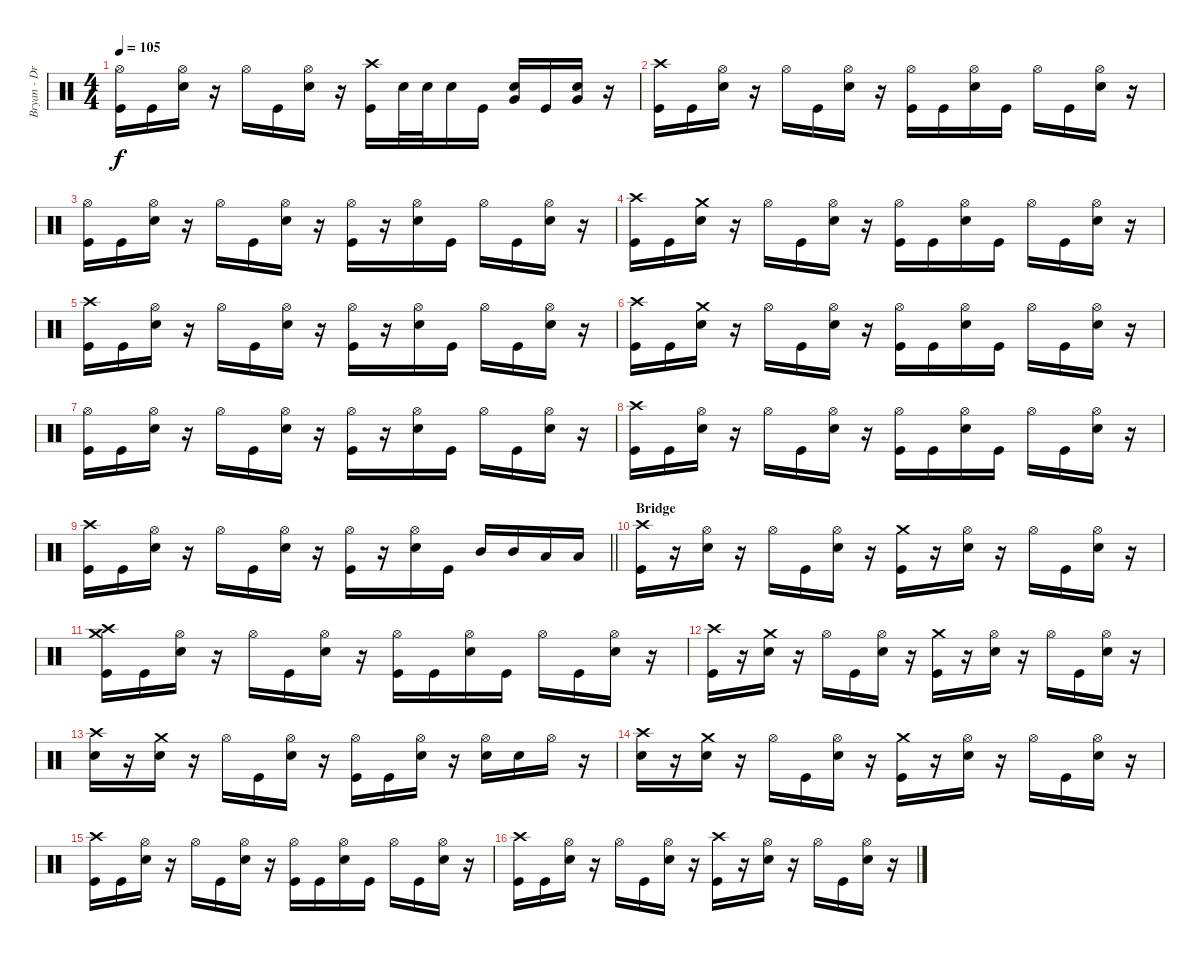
\track ("Bryan - Drums" "Bryan - Dr") {instrument percussion}
\staff {score}
\articulation defaults
\ts (4 4)
\tempo 105
\clef neutral
\ks c
("Hi-Hat (open)" "Kick (hit)").16{dy f} "Kick (hit)".16 ("Hi-Hat (open)" "Snare (hit) 2").16 r.16 "Hi-Hat (open)".16 "Kick (hit)".16 ("Hi-Hat (open)" "Snare (hit) 2").16 r.16 ("Crash high (hit)" "Kick (hit)").16 "Snare (hit) 2".32 "Snare (hit) 2".32 "Snare (hit) 2".16 "Kick (hit)".16 ("Snare (hit) 2" "Very Low Tom (hit)").16 "Kick (hit)".16 ("Snare (hit) 2" "Very Low Tom (hit)").16 r.16 |
("Crash high (hit)" "Kick (hit)").16 "Kick (hit)".16 ("Hi-Hat (open)" "Snare (hit) 2").16 r.16 "Hi-Hat (open)".16 "Kick (hit)".16 ("Hi-Hat (open)" "Snare (hit) 2").16 r.16 ("Hi-Hat (open)" "Kick (hit)").16 "Kick (hit)".16 ("Hi-Hat (open)" "Snare (hit) 2").16 "Kick (hit)".16 "Hi-Hat (open)".16 "Kick (hit)".16 ("Hi-Hat (open)" "Snare (hit) 2").16 r.16 |
("Hi-Hat (open)" "Kick (hit)").16 "Kick (hit)".16 ("Hi-Hat (open)" "Snare (hit) 2").16 r.16 "Hi-Hat (open)".16 "Kick (hit)".16 ("Hi-Hat (open)" "Snare (hit) 2").16 r.16 ("Hi-Hat (open)" "Kick (hit)").16 r.16 ("Hi-Hat (open)" "Snare (hit) 2").16 "Kick (hit)".16 "Hi-Hat (open)".16 "Kick (hit)".16 ("Hi-Hat (open)" "Snare (hit) 2").16 r.16 |
("Crash high (hit)" "Kick (hit)").16 "Kick (hit)".16 ("Crash medium (hit)" "Snare (hit) 2").16 r.16 "Hi-Hat (open)".16 "Kick (hit)".16 ("Hi-Hat (open)" "Snare (hit) 2").16 r.16 ("Hi-Hat (open)" "Kick (hit)").16 "Kick (hit)".16 ("Hi-Hat (open)" "Snare (hit) 2").16 "Kick (hit)".16 "Hi-Hat (open)".16 "Kick (hit)".16 ("Hi-Hat (open)" "Snare (hit) 2").16 r.16 |
("Crash high (hit)" "Kick (hit)").16 "Kick (hit)".16 ("Hi-Hat (open)" "Snare (hit) 2").16 r.16 "Hi-Hat (open)".16 "Kick (hit)".16 ("Hi-Hat (open)" "Snare (hit) 2").16 r.16 ("Hi-Hat (open)" "Kick (hit)").16 r.16 ("Hi-Hat (open)" "Snare (hit) 2").16 "Kick (hit)".16 "Hi-Hat (open)".16 "Kick (hit)".16 ("Hi-Hat (open)" "Snare (hit) 2").16 r.16 |
("Crash high (hit)" "Kick (hit)").16 "Kick (hit)".16 ("Crash medium (hit)" "Snare (hit) 2").16 r.16 "Hi-Hat (open)".16 "Kick (hit)".16 ("Hi-Hat (open)" "Snare (hit) 2").16 r.16 ("Hi-Hat (open)" "Kick (hit)").16 "Kick (hit)".16 ("Hi-Hat (open)" "Snare (hit) 2").16 "Kick (hit)".16 "Hi-Hat (open)".16 "Kick (hit)".16 ("Hi-Hat (open)" "Snare (hit) 2").16 r.16 |
("Hi-Hat (open)" "Kick (hit)").16 "Kick (hit)".16 ("Hi-Hat (open)" "Snare (hit) 2").16 r.16 "Hi-Hat (open)".16 "Kick (hit)".16 ("Hi-Hat (open)" "Snare (hit) 2").16 r.16 ("Hi-Hat (open)" "Kick (hit)").16 r.16 ("Hi-Hat (open)" "Snare (hit) 2").16 "Kick (hit)".16 "Hi-Hat (open)".16 "Kick (hit)".16 ("Hi-Hat (open)" "Snare (hit) 2").16 r.16 |
("Crash high (hit)" "Kick (hit)").16 "Kick (hit)".16 ("Hi-Hat (open)" "Snare (hit) 2").16 r.16 "Hi-Hat (open)".16 "Kick (hit)".16 ("Hi-Hat (open)" "Snare (hit) 2").16 r.16 ("Hi-Hat (open)" "Kick (hit)").16 "Kick (hit)".16 ("Hi-Hat (open)" "Snare (hit) 2").16 "Kick (hit)".16 "Hi-Hat (open)".16 "Kick (hit)".16 ("Hi-Hat (open)" "Snare (hit) 2").16 r.16 |
\barLineRight lightlight
("Crash high (hit)" "Kick (hit)").16 "Kick (hit)".16 ("Hi-Hat (open)" "Snare (hit) 2").16 r.16 "Hi-Hat (open)".16 "Kick (hit)".16 ("Hi-Hat (open)" "Snare (hit) 2").16 r.16 ("Hi-Hat (open)" "Kick (hit)").16 r.16 ("Hi-Hat (open)" "Snare (hit) 2").16 "Kick (hit)".16 "Mid Tom (hit)".16 "Mid Tom (hit)".16 "Low Tom (hit)".16 "Low Tom (hit)".16 |
\section ("" "Bridge")
("Crash high (hit)" "Kick (hit)").16 r.16 ("Hi-Hat (open)" "Snare (hit) 2").16 r.16 "Hi-Hat (open)".16 "Kick (hit)".16 ("Hi-Hat (open)" "Snare (hit) 2").16 r.16 ("Crash medium (hit)" "Kick (hit)").16 r.16 ("Hi-Hat (open)" "Snare (hit) 2").16 r.16 "Hi-Hat (open)".16 "Kick (hit)".16 ("Hi-Hat (open)" "Snare (hit) 2").16 r.16 |
("Crash medium (hit)" "Crash high (hit)" "Kick (hit)").16 "Kick (hit)".16 ("Hi-Hat (open)" "Snare (hit) 2").16 r.16 "Hi-Hat (open)".16 "Kick (hit)".16 ("Hi-Hat (open)" "Snare (hit) 2").16 r.16 ("Hi-Hat (open)" "Kick (hit)").16 "Kick (hit)".16 ("Hi-Hat (open)" "Snare (hit) 2").16 "Kick (hit)".16 "Hi-Hat (open)".16 "Kick (hit)".16 ("Hi-Hat (open)" "Snare (hit) 2").16 r.16 |
("Crash high (hit)" "Kick (hit)").16 r.16 ("Crash medium (hit)" "Snare (hit) 2").16 r.16 "Hi-Hat (open)".16 "Kick (hit)".16 ("Hi-Hat (open)" "Snare (hit) 2").16 r.16 ("Crash medium (hit)" "Kick (hit)").16 r.16 ("Hi-Hat (open)" "Snare (hit) 2").16 r.16 "Hi-Hat (open)".16 "Kick (hit)".16 ("Hi-Hat (open)" "Snare (hit) 2").16 r.16 |
("Crash high (hit)" "Snare (hit) 2").16 r.16 ("Crash medium (hit)" "Snare (hit) 2").16 r.16 "Hi-Hat (open)".16 "Kick (hit)".16 ("Hi-Hat (open)" "Snare (hit) 2").16 r.16 ("Hi-Hat (open)" "Kick (hit)").16 "Kick (hit)".16 ("Hi-Hat (open)" "Snare (hit) 2").16 r.16 ("Hi-Hat (open)" "Snare (hit) 2").16 "Snare (hit) 2".16 "Hi-Hat (open)".16 r.16 |
("Crash high (hit)" "Snare (hit) 2").16 r.16 ("Crash medium (hit)" "Snare (hit) 2").16 r.16 "Hi-Hat (open)".16 "Kick (hit)".16 ("Hi-Hat (open)" "Snare (hit) 2").16 r.16 ("Crash medium (hit)" "Kick (hit)").16 r.16 ("Hi-Hat (open)" "Snare (hit) 2").16 r.16 "Hi-Hat (open)".16 "Kick (hit)".16 ("Hi-Hat (open)" "Snare (hit) 2").16 r.16 |
("Crash high (hit)" "Kick (hit)").16 "Kick (hit)".16 ("Hi-Hat (open)" "Snare (hit) 2").16 r.16 "Hi-Hat (open)".16 "Kick (hit)".16 ("Hi-Hat (open)" "Snare (hit) 2").16 r.16 ("Hi-Hat (open)" "Kick (hit)").16 "Kick (hit)".16 ("Hi-Hat (open)" "Snare (hit) 2").16 "Kick (hit)".16 "Hi-Hat (open)".16 "Kick (hit)".16 ("Hi-Hat (open)" "Snare (hit) 2").16 r.16 |
("Crash high (hit)" "Kick (hit)").16 "Kick (hit)".16 ("Hi-Hat (open)" "Snare (hit) 2").16 r.16 "Hi-Hat (open)".16 "Kick (hit)".16 ("Hi-Hat (open)" "Snare (hit) 2").16 r.16 ("Crash high (hit)" "Kick (hit)").16 r.16 ("Hi-Hat (open)" "Snare (hit) 2").16 r.16 "Hi-Hat (open)".16 "Kick (hit)".16 ("Hi-Hat (open)" "Snare (hit) 2").16 r.16
